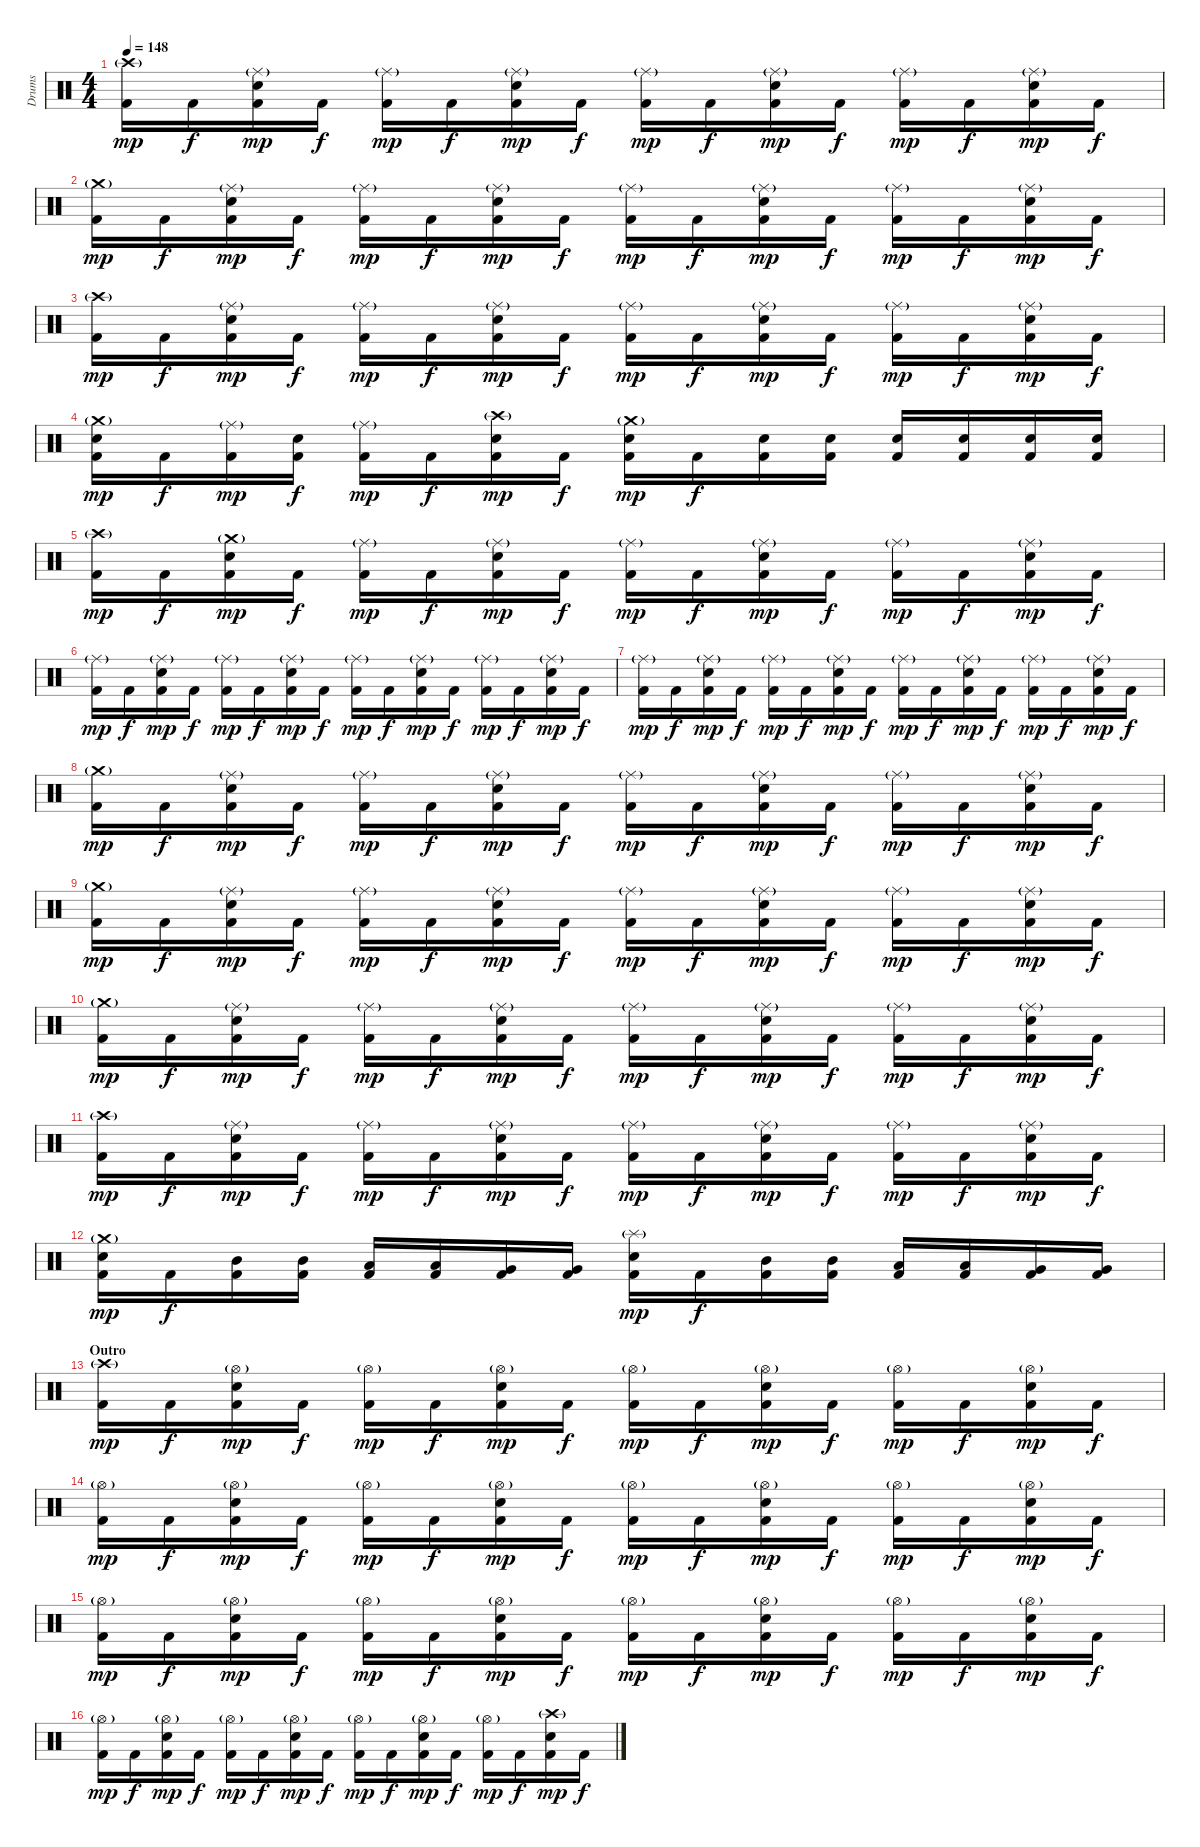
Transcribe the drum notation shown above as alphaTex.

\track ("Drums" "Drums") {instrument percussion}
\staff {score}
\articulation defaults
\ts (4 4)
\tempo 148
\clef neutral
\ks c
("Crash high (hit)"{g} "Kick (hit) 2").16{dy mp} "Kick (hit) 2".16{dy f} ("Ride (middle)"{g} "Snare (hit) 2" "Kick (hit) 2").16{dy mp} "Kick (hit) 2".16{dy f} ("Ride (middle)"{g} "Kick (hit) 2").16{dy mp} "Kick (hit) 2".16{dy f} ("Ride (middle)"{g} "Snare (hit) 2" "Kick (hit) 2").16{dy mp} "Kick (hit) 2".16{dy f} ("Ride (middle)"{g} "Kick (hit) 2").16{dy mp} "Kick (hit) 2".16{dy f} ("Ride (middle)"{g} "Snare (hit) 2" "Kick (hit) 2").16{dy mp} "Kick (hit) 2".16{dy f} ("Ride (middle)"{g} "Kick (hit) 2").16{dy mp} "Kick (hit) 2".16{dy f} ("Ride (middle)"{g} "Snare (hit) 2" "Kick (hit) 2").16{dy mp} "Kick (hit) 2".16{dy f} |
("Crash medium (hit)"{g} "Kick (hit) 2").16{dy mp} "Kick (hit) 2".16{dy f} ("Ride (middle)"{g} "Snare (hit) 2" "Kick (hit) 2").16{dy mp} "Kick (hit) 2".16{dy f} ("Ride (middle)"{g} "Kick (hit) 2").16{dy mp} "Kick (hit) 2".16{dy f} ("Ride (middle)"{g} "Snare (hit) 2" "Kick (hit) 2").16{dy mp} "Kick (hit) 2".16{dy f} ("Ride (middle)"{g} "Kick (hit) 2").16{dy mp} "Kick (hit) 2".16{dy f} ("Ride (middle)"{g} "Snare (hit) 2" "Kick (hit) 2").16{dy mp} "Kick (hit) 2".16{dy f} ("Ride (middle)"{g} "Kick (hit) 2").16{dy mp} "Kick (hit) 2".16{dy f} ("Ride (middle)"{g} "Snare (hit) 2" "Kick (hit) 2").16{dy mp} "Kick (hit) 2".16{dy f} |
("Crash high (hit)"{g} "Kick (hit) 2").16{dy mp} "Kick (hit) 2".16{dy f} ("Ride (middle)"{g} "Snare (hit) 2" "Kick (hit) 2").16{dy mp} "Kick (hit) 2".16{dy f} ("Ride (middle)"{g} "Kick (hit) 2").16{dy mp} "Kick (hit) 2".16{dy f} ("Ride (middle)"{g} "Snare (hit) 2" "Kick (hit) 2").16{dy mp} "Kick (hit) 2".16{dy f} ("Ride (middle)"{g} "Kick (hit) 2").16{dy mp} "Kick (hit) 2".16{dy f} ("Ride (middle)"{g} "Snare (hit) 2" "Kick (hit) 2").16{dy mp} "Kick (hit) 2".16{dy f} ("Ride (middle)"{g} "Kick (hit) 2").16{dy mp} "Kick (hit) 2".16{dy f} ("Ride (middle)"{g} "Snare (hit) 2" "Kick (hit) 2").16{dy mp} "Kick (hit) 2".16{dy f} |
("Crash medium (hit)"{g} "Snare (hit) 2" "Kick (hit) 2").16{dy mp} "Kick (hit) 2".16{dy f} ("Ride (middle)"{g} "Kick (hit) 2").16{dy mp} ("Snare (hit) 2" "Kick (hit) 2").16{dy f} ("Ride (middle)"{g} "Kick (hit) 2").16{dy mp} "Kick (hit) 2".16{dy f} ("Crash high (hit)"{g} "Snare (hit) 2" "Kick (hit) 2").16{dy mp} "Kick (hit) 2".16{dy f} ("Crash medium (hit)"{g} "Snare (hit) 2" "Kick (hit) 2").16{dy mp} "Kick (hit) 2".16{dy f} ("Snare (hit) 2" "Kick (hit) 2").16 ("Snare (hit) 2" "Kick (hit) 2").16 ("Snare (hit) 2" "Kick (hit) 2").16 ("Snare (hit) 2" "Kick (hit) 2").16 ("Snare (hit) 2" "Kick (hit) 2").16 ("Snare (hit) 2" "Kick (hit) 2").16 |
("Crash high (hit)"{g} "Kick (hit) 2").16{dy mp} "Kick (hit) 2".16{dy f} ("Crash medium (hit)"{g} "Snare (hit) 2" "Kick (hit) 2").16{dy mp} "Kick (hit) 2".16{dy f} ("Ride (middle)"{g} "Kick (hit) 2").16{dy mp} "Kick (hit) 2".16{dy f} ("Ride (middle)"{g} "Snare (hit) 2" "Kick (hit) 2").16{dy mp} "Kick (hit) 2".16{dy f} ("Ride (middle)"{g} "Kick (hit) 2").16{dy mp} "Kick (hit) 2".16{dy f} ("Ride (middle)"{g} "Snare (hit) 2" "Kick (hit) 2").16{dy mp} "Kick (hit) 2".16{dy f} ("Ride (middle)"{g} "Kick (hit) 2").16{dy mp} "Kick (hit) 2".16{dy f} ("Ride (middle)"{g} "Snare (hit) 2" "Kick (hit) 2").16{dy mp} "Kick (hit) 2".16{dy f} |
("Ride (middle)"{g} "Kick (hit) 2").16{dy mp} "Kick (hit) 2".16{dy f} ("Ride (middle)"{g} "Snare (hit) 2" "Kick (hit) 2").16{dy mp} "Kick (hit) 2".16{dy f} ("Ride (middle)"{g} "Kick (hit) 2").16{dy mp} "Kick (hit) 2".16{dy f} ("Ride (middle)"{g} "Snare (hit) 2" "Kick (hit) 2").16{dy mp} "Kick (hit) 2".16{dy f} ("Ride (middle)"{g} "Kick (hit) 2").16{dy mp} "Kick (hit) 2".16{dy f} ("Ride (middle)"{g} "Snare (hit) 2" "Kick (hit) 2").16{dy mp} "Kick (hit) 2".16{dy f} ("Ride (middle)"{g} "Kick (hit) 2").16{dy mp} "Kick (hit) 2".16{dy f} ("Ride (middle)"{g} "Snare (hit) 2" "Kick (hit) 2").16{dy mp} "Kick (hit) 2".16{dy f} |
("Ride (middle)"{g} "Kick (hit) 2").16{dy mp} "Kick (hit) 2".16{dy f} ("Ride (middle)"{g} "Snare (hit) 2" "Kick (hit) 2").16{dy mp} "Kick (hit) 2".16{dy f} ("Ride (middle)"{g} "Kick (hit) 2").16{dy mp} "Kick (hit) 2".16{dy f} ("Ride (middle)"{g} "Snare (hit) 2" "Kick (hit) 2").16{dy mp} "Kick (hit) 2".16{dy f} ("Ride (middle)"{g} "Kick (hit) 2").16{dy mp} "Kick (hit) 2".16{dy f} ("Ride (middle)"{g} "Snare (hit) 2" "Kick (hit) 2").16{dy mp} "Kick (hit) 2".16{dy f} ("Ride (middle)"{g} "Kick (hit) 2").16{dy mp} "Kick (hit) 2".16{dy f} ("Ride (middle)"{g} "Snare (hit) 2" "Kick (hit) 2").16{dy mp} "Kick (hit) 2".16{dy f} |
("Crash medium (hit)"{g} "Kick (hit) 2").16{dy mp} "Kick (hit) 2".16{dy f} ("Ride (middle)"{g} "Snare (hit) 2" "Kick (hit) 2").16{dy mp} "Kick (hit) 2".16{dy f} ("Ride (middle)"{g} "Kick (hit) 2").16{dy mp} "Kick (hit) 2".16{dy f} ("Ride (middle)"{g} "Snare (hit) 2" "Kick (hit) 2").16{dy mp} "Kick (hit) 2".16{dy f} ("Ride (middle)"{g} "Kick (hit) 2").16{dy mp} "Kick (hit) 2".16{dy f} ("Ride (middle)"{g} "Snare (hit) 2" "Kick (hit) 2").16{dy mp} "Kick (hit) 2".16{dy f} ("Ride (middle)"{g} "Kick (hit) 2").16{dy mp} "Kick (hit) 2".16{dy f} ("Ride (middle)"{g} "Snare (hit) 2" "Kick (hit) 2").16{dy mp} "Kick (hit) 2".16{dy f} |
("Crash medium (hit)"{g} "Kick (hit) 2").16{dy mp} "Kick (hit) 2".16{dy f} ("Ride (middle)"{g} "Snare (hit) 2" "Kick (hit) 2").16{dy mp} "Kick (hit) 2".16{dy f} ("Ride (middle)"{g} "Kick (hit) 2").16{dy mp} "Kick (hit) 2".16{dy f} ("Ride (middle)"{g} "Snare (hit) 2" "Kick (hit) 2").16{dy mp} "Kick (hit) 2".16{dy f} ("Ride (middle)"{g} "Kick (hit) 2").16{dy mp} "Kick (hit) 2".16{dy f} ("Ride (middle)"{g} "Snare (hit) 2" "Kick (hit) 2").16{dy mp} "Kick (hit) 2".16{dy f} ("Ride (middle)"{g} "Kick (hit) 2").16{dy mp} "Kick (hit) 2".16{dy f} ("Ride (middle)"{g} "Snare (hit) 2" "Kick (hit) 2").16{dy mp} "Kick (hit) 2".16{dy f} |
("Crash medium (hit)"{g} "Kick (hit) 2").16{dy mp} "Kick (hit) 2".16{dy f} ("Ride (middle)"{g} "Snare (hit) 2" "Kick (hit) 2").16{dy mp} "Kick (hit) 2".16{dy f} ("Ride (middle)"{g} "Kick (hit) 2").16{dy mp} "Kick (hit) 2".16{dy f} ("Ride (middle)"{g} "Snare (hit) 2" "Kick (hit) 2").16{dy mp} "Kick (hit) 2".16{dy f} ("Ride (middle)"{g} "Kick (hit) 2").16{dy mp} "Kick (hit) 2".16{dy f} ("Ride (middle)"{g} "Snare (hit) 2" "Kick (hit) 2").16{dy mp} "Kick (hit) 2".16{dy f} ("Ride (middle)"{g} "Kick (hit) 2").16{dy mp} "Kick (hit) 2".16{dy f} ("Ride (middle)"{g} "Snare (hit) 2" "Kick (hit) 2").16{dy mp} "Kick (hit) 2".16{dy f} |
("Crash high (hit)"{g} "Kick (hit) 2").16{dy mp} "Kick (hit) 2".16{dy f} ("Ride (middle)"{g} "Snare (hit) 2" "Kick (hit) 2").16{dy mp} "Kick (hit) 2".16{dy f} ("Ride (middle)"{g} "Kick (hit) 2").16{dy mp} "Kick (hit) 2".16{dy f} ("Ride (middle)"{g} "Snare (hit) 2" "Kick (hit) 2").16{dy mp} "Kick (hit) 2".16{dy f} ("Ride (middle)"{g} "Kick (hit) 2").16{dy mp} "Kick (hit) 2".16{dy f} ("Ride (middle)"{g} "Snare (hit) 2" "Kick (hit) 2").16{dy mp} "Kick (hit) 2".16{dy f} ("Ride (middle)"{g} "Kick (hit) 2").16{dy mp} "Kick (hit) 2".16{dy f} ("Ride (middle)"{g} "Snare (hit) 2" "Kick (hit) 2").16{dy mp} "Kick (hit) 2".16{dy f} |
("Crash medium (hit)"{g} "Snare (hit) 2" "Kick (hit) 2").16{dy mp} "Kick (hit) 2".16{dy f} ("Mid Tom (hit)" "Kick (hit) 2").16 ("Mid Tom (hit)" "Kick (hit) 2").16 ("Low Tom (hit)" "Kick (hit) 2").16 ("Low Tom (hit)" "Kick (hit) 2").16 ("Very Low Tom (hit)" "Kick (hit) 2").16 ("Very Low Tom (hit)" "Kick (hit) 2").16 ("Splash (hit)"{g} "Snare (hit) 2" "Kick (hit) 2").16{dy mp} "Kick (hit) 2".16{dy f} ("Mid Tom (hit)" "Kick (hit) 2").16 ("Mid Tom (hit)" "Kick (hit) 2").16 ("Low Tom (hit)" "Kick (hit) 2").16 ("Low Tom (hit)" "Kick (hit) 2").16 ("Very Low Tom (hit)" "Kick (hit) 2").16 ("Very Low Tom (hit)" "Kick (hit) 2").16 |
\section ("" "Outro")
("Crash high (hit)"{g} "Kick (hit) 2").16{dy mp} "Kick (hit) 2".16{dy f} ("Hi-Hat (open)"{g} "Snare (hit) 2" "Kick (hit) 2").16{dy mp} "Kick (hit) 2".16{dy f} ("Hi-Hat (open)"{g} "Kick (hit) 2").16{dy mp} "Kick (hit) 2".16{dy f} ("Hi-Hat (open)"{g} "Snare (hit) 2" "Kick (hit) 2").16{dy mp} "Kick (hit) 2".16{dy f} ("Hi-Hat (open)"{g} "Kick (hit) 2").16{dy mp} "Kick (hit) 2".16{dy f} ("Hi-Hat (open)"{g} "Snare (hit) 2" "Kick (hit) 2").16{dy mp} "Kick (hit) 2".16{dy f} ("Hi-Hat (open)"{g} "Kick (hit) 2").16{dy mp} "Kick (hit) 2".16{dy f} ("Hi-Hat (open)"{g} "Snare (hit) 2" "Kick (hit) 2").16{dy mp} "Kick (hit) 2".16{dy f} |
("Hi-Hat (open)"{g} "Kick (hit) 2").16{dy mp} "Kick (hit) 2".16{dy f} ("Hi-Hat (open)"{g} "Snare (hit) 2" "Kick (hit) 2").16{dy mp} "Kick (hit) 2".16{dy f} ("Hi-Hat (open)"{g} "Kick (hit) 2").16{dy mp} "Kick (hit) 2".16{dy f} ("Hi-Hat (open)"{g} "Snare (hit) 2" "Kick (hit) 2").16{dy mp} "Kick (hit) 2".16{dy f} ("Hi-Hat (open)"{g} "Kick (hit) 2").16{dy mp} "Kick (hit) 2".16{dy f} ("Hi-Hat (open)"{g} "Snare (hit) 2" "Kick (hit) 2").16{dy mp} "Kick (hit) 2".16{dy f} ("Hi-Hat (open)"{g} "Kick (hit) 2").16{dy mp} "Kick (hit) 2".16{dy f} ("Hi-Hat (open)"{g} "Snare (hit) 2" "Kick (hit) 2").16{dy mp} "Kick (hit) 2".16{dy f} |
("Hi-Hat (open)"{g} "Kick (hit) 2").16{dy mp} "Kick (hit) 2".16{dy f} ("Hi-Hat (open)"{g} "Snare (hit) 2" "Kick (hit) 2").16{dy mp} "Kick (hit) 2".16{dy f} ("Hi-Hat (open)"{g} "Kick (hit) 2").16{dy mp} "Kick (hit) 2".16{dy f} ("Hi-Hat (open)"{g} "Snare (hit) 2" "Kick (hit) 2").16{dy mp} "Kick (hit) 2".16{dy f} ("Hi-Hat (open)"{g} "Kick (hit) 2").16{dy mp} "Kick (hit) 2".16{dy f} ("Hi-Hat (open)"{g} "Snare (hit) 2" "Kick (hit) 2").16{dy mp} "Kick (hit) 2".16{dy f} ("Hi-Hat (open)"{g} "Kick (hit) 2").16{dy mp} "Kick (hit) 2".16{dy f} ("Hi-Hat (open)"{g} "Snare (hit) 2" "Kick (hit) 2").16{dy mp} "Kick (hit) 2".16{dy f} |
("Hi-Hat (open)"{g} "Kick (hit) 2").16{dy mp} "Kick (hit) 2".16{dy f} ("Hi-Hat (open)"{g} "Snare (hit) 2" "Kick (hit) 2").16{dy mp} "Kick (hit) 2".16{dy f} ("Hi-Hat (open)"{g} "Kick (hit) 2").16{dy mp} "Kick (hit) 2".16{dy f} ("Hi-Hat (open)"{g} "Snare (hit) 2" "Kick (hit) 2").16{dy mp} "Kick (hit) 2".16{dy f} ("Hi-Hat (open)"{g} "Kick (hit) 2").16{dy mp} "Kick (hit) 2".16{dy f} ("Hi-Hat (open)"{g} "Snare (hit) 2" "Kick (hit) 2").16{dy mp} "Kick (hit) 2".16{dy f} ("Hi-Hat (open)"{g} "Kick (hit) 2").16{dy mp} "Kick (hit) 2".16{dy f} ("Crash high (hit)"{g} "Snare (hit) 2" "Kick (hit) 2").16{dy mp} "Kick (hit) 2".16{dy f}
